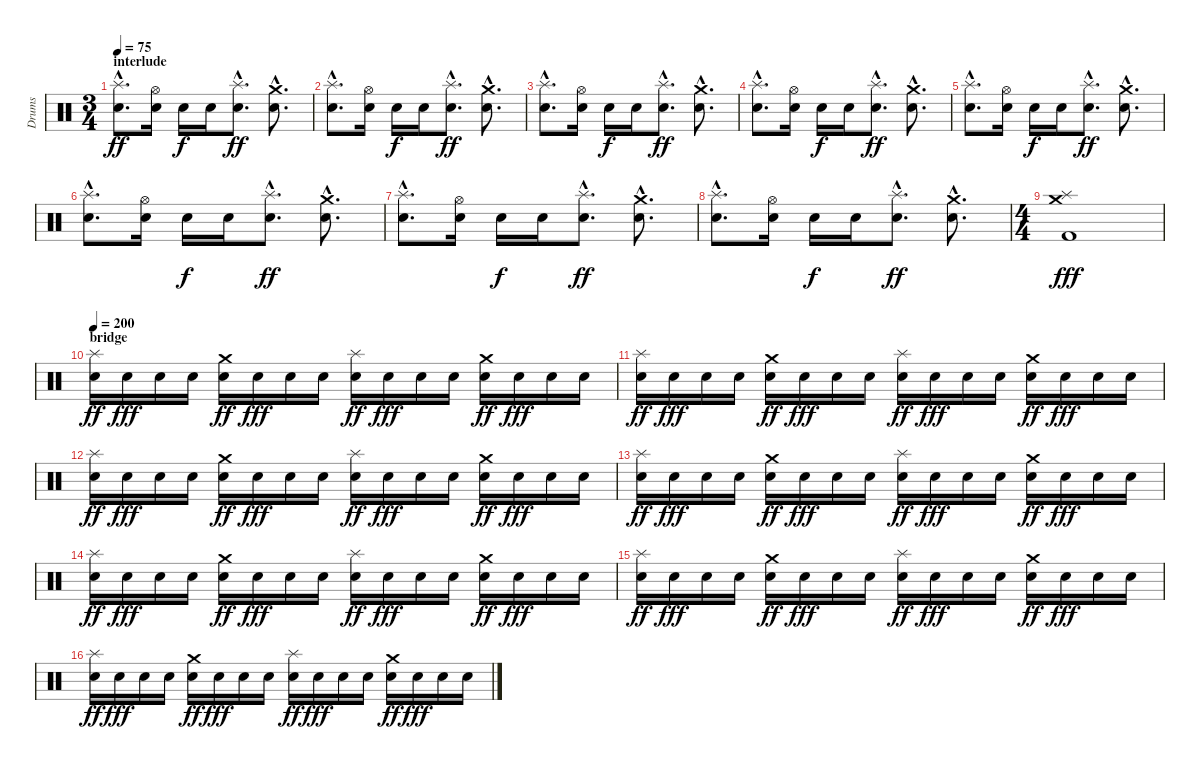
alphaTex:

\track ("Drums" "Drums") {instrument percussion}
\staff {score}
\articulation defaults
\ts (3 4)
\section ("" "interlude")
\tempo 75
\clef neutral
\ks c
("Splash (hit)"{hac} "Snare (hit) 2"{hac}).8{d dy ff} ("Hi-Hat (open)" "Electric Snare (hit)").16 "Electric Snare (hit)".16{dy f} "Electric Snare (hit)".16 ("Splash (hit)"{hac} "Snare (hit) 2"{hac}).8{d dy ff} ("Crash medium (hit)"{hac} "Electric Snare (hit)"{hac}).8{d} |
("Splash (hit)"{hac} "Snare (hit) 2"{hac}).8{d} ("Hi-Hat (open)" "Electric Snare (hit)").16 "Electric Snare (hit)".16{dy f} "Electric Snare (hit)".16 ("Splash (hit)"{hac} "Snare (hit) 2"{hac}).8{d dy ff} ("Crash medium (hit)"{hac} "Electric Snare (hit)"{hac}).8{d} |
("Splash (hit)"{hac} "Snare (hit) 2"{hac}).8{d} ("Hi-Hat (open)" "Electric Snare (hit)").16 "Electric Snare (hit)".16{dy f} "Electric Snare (hit)".16 ("Splash (hit)"{hac} "Snare (hit) 2"{hac}).8{d dy ff} ("Crash medium (hit)"{hac} "Electric Snare (hit)"{hac}).8{d} |
("Splash (hit)"{hac} "Snare (hit) 2"{hac}).8{d} ("Hi-Hat (open)" "Electric Snare (hit)").16 "Electric Snare (hit)".16{dy f} "Electric Snare (hit)".16 ("Splash (hit)"{hac} "Snare (hit) 2"{hac}).8{d dy ff} ("Crash medium (hit)"{hac} "Electric Snare (hit)"{hac}).8{d} |
("Splash (hit)"{hac} "Snare (hit) 2"{hac}).8{d} ("Hi-Hat (open)" "Electric Snare (hit)").16 "Electric Snare (hit)".16{dy f} "Electric Snare (hit)".16 ("Splash (hit)"{hac} "Snare (hit) 2"{hac}).8{d dy ff} ("Crash medium (hit)"{hac} "Electric Snare (hit)"{hac}).8{d} |
("Splash (hit)"{hac} "Snare (hit) 2"{hac}).8{d} ("Hi-Hat (open)" "Electric Snare (hit)").16 "Electric Snare (hit)".16{dy f} "Electric Snare (hit)".16 ("Splash (hit)"{hac} "Snare (hit) 2"{hac}).8{d dy ff} ("Crash medium (hit)"{hac} "Electric Snare (hit)"{hac}).8{d} |
("Splash (hit)"{hac} "Snare (hit) 2"{hac}).8{d} ("Hi-Hat (open)" "Electric Snare (hit)").16 "Electric Snare (hit)".16{dy f} "Electric Snare (hit)".16 ("Splash (hit)"{hac} "Snare (hit) 2"{hac}).8{d dy ff} ("Crash medium (hit)"{hac} "Electric Snare (hit)"{hac}).8{d} |
("Splash (hit)"{hac} "Snare (hit) 2"{hac}).8{d} ("Hi-Hat (open)" "Electric Snare (hit)").16 "Electric Snare (hit)".16{dy f} "Electric Snare (hit)".16 ("Splash (hit)"{hac} "Snare (hit) 2"{hac}).8{d dy ff} ("Crash medium (hit)"{hac} "Electric Snare (hit)"{hac}).8{d} |
\ts (4 4)
("Splash (hit)" "Kick (hit) 2" "Crash medium (hit)").1{dy fff} |
\section ("" "bridge")
\tempo 200
("Snare (hit) 2" "Splash (hit)").16{dy ff} "Snare (hit) 2".16{dy fff} "Snare (hit) 2".16 "Snare (hit) 2".16 ("Snare (hit) 2" "Crash medium (hit)").16{dy ff} "Snare (hit) 2".16{dy fff} "Snare (hit) 2".16 "Snare (hit) 2".16 ("Snare (hit) 2" "Splash (hit)").16{dy ff} "Snare (hit) 2".16{dy fff} "Snare (hit) 2".16 "Snare (hit) 2".16 ("Snare (hit) 2" "Crash medium (hit)").16{dy ff} "Snare (hit) 2".16{dy fff} "Snare (hit) 2".16 "Snare (hit) 2".16 |
("Snare (hit) 2" "Splash (hit)").16{dy ff} "Snare (hit) 2".16{dy fff} "Snare (hit) 2".16 "Snare (hit) 2".16 ("Snare (hit) 2" "Crash medium (hit)").16{dy ff} "Snare (hit) 2".16{dy fff} "Snare (hit) 2".16 "Snare (hit) 2".16 ("Snare (hit) 2" "Splash (hit)").16{dy ff} "Snare (hit) 2".16{dy fff} "Snare (hit) 2".16 "Snare (hit) 2".16 ("Snare (hit) 2" "Crash medium (hit)").16{dy ff} "Snare (hit) 2".16{dy fff} "Snare (hit) 2".16 "Snare (hit) 2".16 |
("Snare (hit) 2" "Splash (hit)").16{dy ff} "Snare (hit) 2".16{dy fff} "Snare (hit) 2".16 "Snare (hit) 2".16 ("Snare (hit) 2" "Crash medium (hit)").16{dy ff} "Snare (hit) 2".16{dy fff} "Snare (hit) 2".16 "Snare (hit) 2".16 ("Snare (hit) 2" "Splash (hit)").16{dy ff} "Snare (hit) 2".16{dy fff} "Snare (hit) 2".16 "Snare (hit) 2".16 ("Snare (hit) 2" "Crash medium (hit)").16{dy ff} "Snare (hit) 2".16{dy fff} "Snare (hit) 2".16 "Snare (hit) 2".16 |
("Snare (hit) 2" "Splash (hit)").16{dy ff} "Snare (hit) 2".16{dy fff} "Snare (hit) 2".16 "Snare (hit) 2".16 ("Snare (hit) 2" "Crash medium (hit)").16{dy ff} "Snare (hit) 2".16{dy fff} "Snare (hit) 2".16 "Snare (hit) 2".16 ("Snare (hit) 2" "Splash (hit)").16{dy ff} "Snare (hit) 2".16{dy fff} "Snare (hit) 2".16 "Snare (hit) 2".16 ("Snare (hit) 2" "Crash medium (hit)").16{dy ff} "Snare (hit) 2".16{dy fff} "Snare (hit) 2".16 "Snare (hit) 2".16 |
("Snare (hit) 2" "Splash (hit)").16{dy ff} "Snare (hit) 2".16{dy fff} "Snare (hit) 2".16 "Snare (hit) 2".16 ("Snare (hit) 2" "Crash medium (hit)").16{dy ff} "Snare (hit) 2".16{dy fff} "Snare (hit) 2".16 "Snare (hit) 2".16 ("Snare (hit) 2" "Splash (hit)").16{dy ff} "Snare (hit) 2".16{dy fff} "Snare (hit) 2".16 "Snare (hit) 2".16 ("Snare (hit) 2" "Crash medium (hit)").16{dy ff} "Snare (hit) 2".16{dy fff} "Snare (hit) 2".16 "Snare (hit) 2".16 |
("Snare (hit) 2" "Splash (hit)").16{dy ff} "Snare (hit) 2".16{dy fff} "Snare (hit) 2".16 "Snare (hit) 2".16 ("Snare (hit) 2" "Crash medium (hit)").16{dy ff} "Snare (hit) 2".16{dy fff} "Snare (hit) 2".16 "Snare (hit) 2".16 ("Snare (hit) 2" "Splash (hit)").16{dy ff} "Snare (hit) 2".16{dy fff} "Snare (hit) 2".16 "Snare (hit) 2".16 ("Snare (hit) 2" "Crash medium (hit)").16{dy ff} "Snare (hit) 2".16{dy fff} "Snare (hit) 2".16 "Snare (hit) 2".16 |
("Snare (hit) 2" "Splash (hit)").16{dy ff} "Snare (hit) 2".16{dy fff} "Snare (hit) 2".16 "Snare (hit) 2".16 ("Snare (hit) 2" "Crash medium (hit)").16{dy ff} "Snare (hit) 2".16{dy fff} "Snare (hit) 2".16 "Snare (hit) 2".16 ("Snare (hit) 2" "Splash (hit)").16{dy ff} "Snare (hit) 2".16{dy fff} "Snare (hit) 2".16 "Snare (hit) 2".16 ("Snare (hit) 2" "Crash medium (hit)").16{dy ff} "Snare (hit) 2".16{dy fff} "Snare (hit) 2".16 "Snare (hit) 2".16
